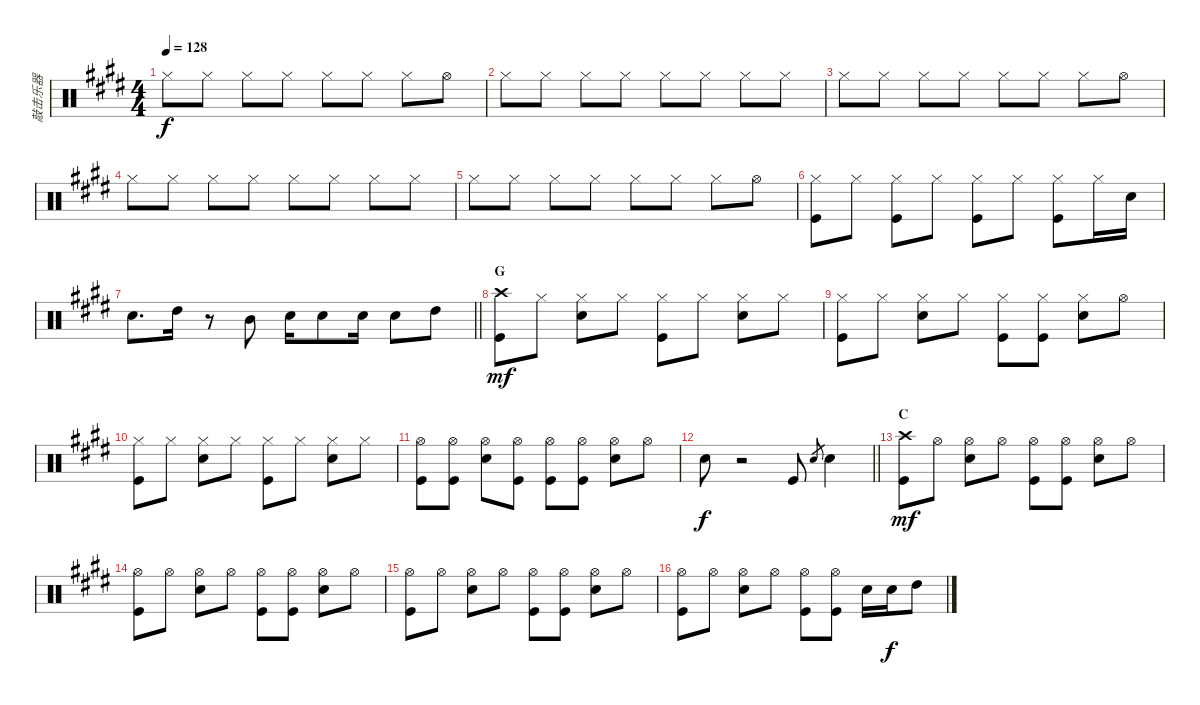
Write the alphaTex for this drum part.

\track ("敲击乐器" "敲击乐器") {instrument percussion}
\staff {score}
\articulation defaults
\ts (4 4)
\tempo 128
\clef neutral
\ks e "Hi-Hat (closed)".8{dy f} "Hi-Hat (closed)".8 "Hi-Hat (closed)".8 "Hi-Hat (closed)".8 "Hi-Hat (closed)".8 "Hi-Hat (closed)".8 "Hi-Hat (closed)".8 "Hi-Hat (open)".8
|
"Hi-Hat (closed)".8 "Hi-Hat (closed)".8 "Hi-Hat (closed)".8 "Hi-Hat (closed)".8 "Hi-Hat (closed)".8 "Hi-Hat (closed)".8 "Hi-Hat (closed)".8 "Hi-Hat (closed)".8 |
"Hi-Hat (closed)".8 "Hi-Hat (closed)".8 "Hi-Hat (closed)".8 "Hi-Hat (closed)".8 "Hi-Hat (closed)".8 "Hi-Hat (closed)".8 "Hi-Hat (closed)".8 "Hi-Hat (open)".8 |
"Hi-Hat (closed)".8 "Hi-Hat (closed)".8 "Hi-Hat (closed)".8 "Hi-Hat (closed)".8 "Hi-Hat (closed)".8 "Hi-Hat (closed)".8 "Hi-Hat (closed)".8 "Hi-Hat (closed)".8 |
"Hi-Hat (closed)".8 "Hi-Hat (closed)".8 "Hi-Hat (closed)".8 "Hi-Hat (closed)".8 "Hi-Hat (closed)".8 "Hi-Hat (closed)".8 "Hi-Hat (closed)".8 "Hi-Hat (open)".8 |
("Hi-Hat (closed)" "Kick (hit)").8 "Hi-Hat (closed)".8 ("Hi-Hat (closed)" "Kick (hit)").8 "Hi-Hat (closed)".8 ("Hi-Hat (closed)" "Kick (hit)").8 "Hi-Hat (closed)".8 ("Hi-Hat (closed)" "Kick (hit)").8 "Hi-Hat (closed)".16 "Snare (hit) 2".16 |
\barLineRight lightlight "Snare (hit) 2".8{d} "High Tom (hit)".16
r.8 "Mid Tom (hit)".8 "Snare (hit) 2".16 "Snare (hit) 2".8 "Snare (hit) 2".16 "Snare (hit) 2".8 "High Tom (hit)".8 |
\section ("" "G")
("Crash high (hit)" "Kick (hit)").8{dy mf} "Hi-Hat (closed)".8 ("Hi-Hat (closed)" "Snare (hit) 2").8 "Hi-Hat (closed)".8 ("Hi-Hat (closed)" "Kick (hit)").8 "Hi-Hat (closed)".8 ("Hi-Hat (closed)" "Snare (hit) 2").8 "Hi-Hat (closed)".8 |
("Hi-Hat (closed)" "Kick (hit)").8 "Hi-Hat (closed)".8 ("Hi-Hat (closed)" "Snare (hit) 2").8 "Hi-Hat (closed)".8 ("Hi-Hat (closed)" "Kick (hit)").8 ("Hi-Hat (closed)" "Kick (hit)").8 ("Hi-Hat (closed)" "Snare (hit) 2").8 "Hi-Hat (open)".8 |
("Hi-Hat (closed)" "Kick (hit)").8 "Hi-Hat (closed)".8 ("Hi-Hat (closed)" "Snare (hit) 2").8 "Hi-Hat (closed)".8 ("Hi-Hat (closed)" "Kick (hit)").8 "Hi-Hat (closed)".8 ("Hi-Hat (closed)" "Snare (hit) 2").8 "Hi-Hat (closed)".8 |
("Hi-Hat (open)" "Kick (hit)").8 ("Hi-Hat (open)" "Kick (hit)").8 ("Hi-Hat (open)" "Snare (hit) 2").8 ("Hi-Hat (open)" "Kick (hit)").8 ("Hi-Hat (open)" "Kick (hit)").8 ("Hi-Hat (open)" "Kick (hit)").8 ("Hi-Hat (open)" "Snare (hit) 2").8 "Hi-Hat (open)".8 |
\barLineRight lightlight "Snare (hit) 2".8{dy f}
r.2 "Kick (hit)".8 "Snare (hit) 2".8{gr} "Snare (hit) 2".4 |
\section ("" "C")
("Crash high (hit)" "Kick (hit)").8{dy mf} "Hi-Hat (open)".8 ("Hi-Hat (open)" "Snare (hit) 2").8 "Hi-Hat (open)".8 ("Hi-Hat (open)" "Kick (hit)").8 ("Hi-Hat (open)" "Kick (hit)").8 ("Hi-Hat (open)" "Snare (hit) 2").8 "Hi-Hat (open)".8 |
("Hi-Hat (open)" "Kick (hit)").8 "Hi-Hat (open)".8 ("Hi-Hat (open)" "Snare (hit) 2").8 "Hi-Hat (open)".8 ("Hi-Hat (open)" "Kick (hit)").8 ("Hi-Hat (open)" "Kick (hit)").8 ("Hi-Hat (open)" "Snare (hit) 2").8 "Hi-Hat (open)".8 |
("Hi-Hat (open)" "Kick (hit)").8 "Hi-Hat (open)".8 ("Hi-Hat (open)" "Snare (hit) 2").8 "Hi-Hat (open)".8 ("Hi-Hat (open)" "Kick (hit)").8 ("Hi-Hat (open)" "Kick (hit)").8 ("Hi-Hat (open)" "Snare (hit) 2").8 "Hi-Hat (open)".8 |
("Hi-Hat (open)" "Kick (hit)").8 "Hi-Hat (open)".8 ("Hi-Hat (open)" "Snare (hit) 2").8 "Hi-Hat (open)".8 ("Hi-Hat (open)" "Kick (hit)").8 ("Hi-Hat (open)" "Kick (hit)").8 "Snare (hit) 2".16 "Snare (hit) 2".16{dy f} "High Tom (hit)".8
